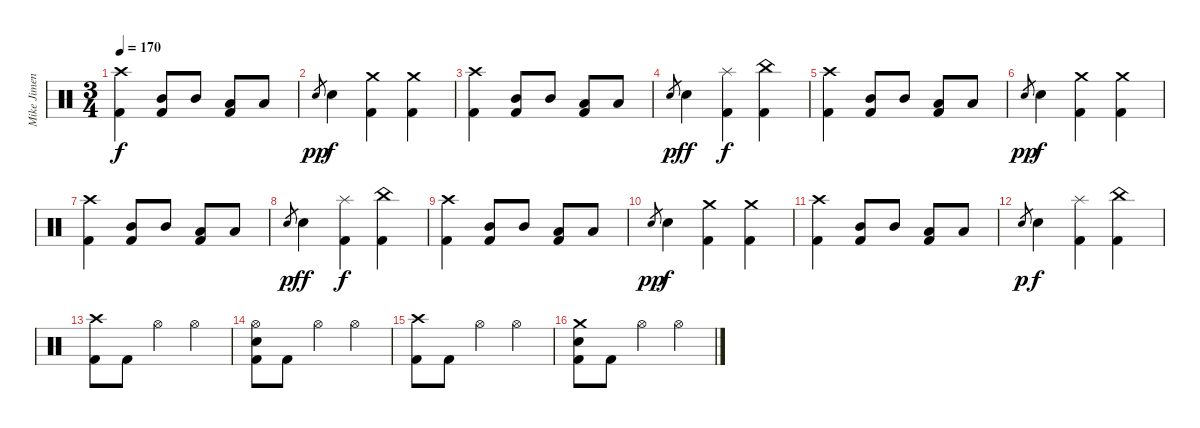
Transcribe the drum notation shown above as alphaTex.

\track ("Mike Jimenez" "Mike Jimen") {instrument percussion}
\staff {score}
\articulation defaults
\ts (3 4)
\tempo 170
\clef neutral
\ks c
("Crash high (hit)" "Kick (hit) 2").4{dy f} ("Mid Tom (hit)" "Kick (hit) 2").8 "Mid Tom (hit)".8 ("Low Tom (hit)" "Kick (hit) 2").8 "Low Tom (hit)".8 |
"Electric Snare (hit)".8{gr dy pp} "Electric Snare (hit)".4{dy f} ("Crash medium (hit)" "Kick (hit) 2").4 ("Crash medium (hit)" "Kick (hit) 2").4 |
("Crash high (hit)" "Kick (hit) 2").4 ("Mid Tom (hit)" "Kick (hit) 2").8 "Mid Tom (hit)".8 ("Low Tom (hit)" "Kick (hit) 2").8 "Low Tom (hit)".8 |
"Electric Snare (hit)".8{gr dy p} "Electric Snare (hit)".4{dy ff} ("Splash (hit)" "Kick (hit) 2").4{dy f} ("China (hit)" "Kick (hit) 2").4 |
("Crash high (hit)" "Kick (hit) 2").4 ("Mid Tom (hit)" "Kick (hit) 2").8 "Mid Tom (hit)".8 ("Low Tom (hit)" "Kick (hit) 2").8 "Low Tom (hit)".8 |
"Electric Snare (hit)".8{gr dy pp} "Electric Snare (hit)".4{dy f} ("Crash medium (hit)" "Kick (hit) 2").4 ("Crash medium (hit)" "Kick (hit) 2").4 |
("Crash high (hit)" "Kick (hit) 2").4 ("Mid Tom (hit)" "Kick (hit) 2").8 "Mid Tom (hit)".8 ("Low Tom (hit)" "Kick (hit) 2").8 "Low Tom (hit)".8 |
"Electric Snare (hit)".8{gr dy p} "Electric Snare (hit)".4{dy ff} ("Splash (hit)" "Kick (hit) 2").4{dy f} ("China (hit)" "Kick (hit) 2").4 |
("Crash high (hit)" "Kick (hit) 2").4 ("Mid Tom (hit)" "Kick (hit) 2").8 "Mid Tom (hit)".8 ("Low Tom (hit)" "Kick (hit) 2").8 "Low Tom (hit)".8 |
"Electric Snare (hit)".8{gr dy pp} "Electric Snare (hit)".4{dy f} ("Crash medium (hit)" "Kick (hit) 2").4 ("Crash medium (hit)" "Kick (hit) 2").4 |
("Crash high (hit)" "Kick (hit) 2").4 ("Mid Tom (hit)" "Kick (hit) 2").8 "Mid Tom (hit)".8 ("Low Tom (hit)" "Kick (hit) 2").8 "Low Tom (hit)".8 |
"Electric Snare (hit)".8{gr dy p} "Electric Snare (hit)".4{dy f} ("Splash (hit)" "Kick (hit) 2").4 ("China (hit)" "Kick (hit) 2").4 |
("Crash high (hit)" "Kick (hit) 2").8 "Kick (hit) 2".8 "Hi-Hat (open)".4 "Hi-Hat (open)".4 |
("Hi-Hat (open)" "Electric Snare (hit)" "Kick (hit) 2").8 "Kick (hit) 2".8 "Hi-Hat (open)".4 "Hi-Hat (open)".4 |
("Crash high (hit)" "Kick (hit) 2").8 "Kick (hit) 2".8 "Hi-Hat (open)".4 "Hi-Hat (open)".4 |
("Crash medium (hit)" "Electric Snare (hit)" "Kick (hit) 2").8 "Kick (hit) 2".8 "Hi-Hat (open)".4 "Hi-Hat (open)".4
